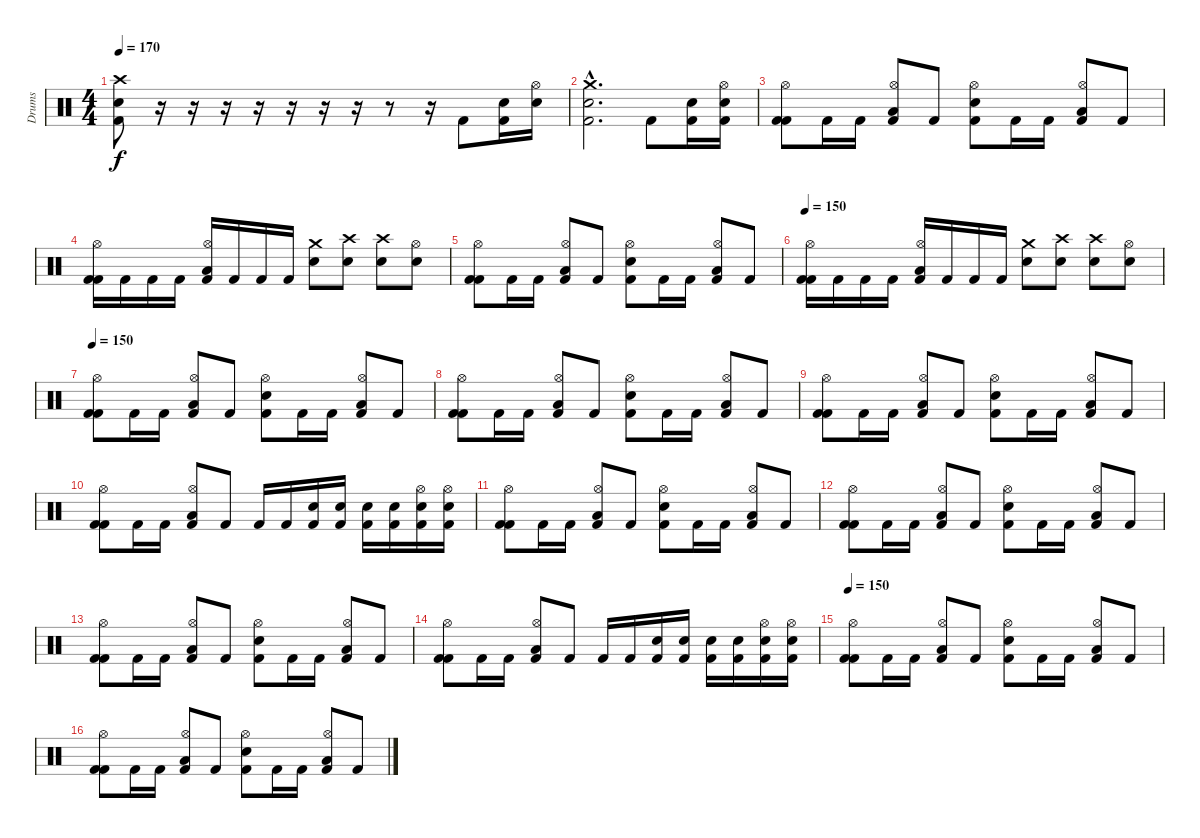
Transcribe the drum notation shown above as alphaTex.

\track ("Drums" "Drums") {instrument percussion}
\staff {score}
\articulation defaults
\ts (4 4)
\tempo 170
\clef neutral
\ks c
("Crash high (hit)" "Snare (hit) 2" "Kick (hit) 2").8{dy f} r.16 r.16 r.16 r.16 r.16 r.16 r.16 r.8 r.16 "Kick (hit) 2".8 ("Snare (hit) 2" "Kick (hit) 2").16 ("Hi-Hat (open)" "Snare (hit) 2").16 |
("Crash medium (hit)"{hac} "Snare (hit) 2"{hac} "Kick (hit) 2"{hac}).2{d} "Kick (hit) 2".8 ("Snare (hit) 2" "Kick (hit) 2").16 ("Hi-Hat (open)" "Snare (hit) 2" "Kick (hit) 2").16 |
("Hi-Hat (open)" "Kick (hit) 2" "Kick (hit) 2").8 "Kick (hit) 2".16 "Kick (hit) 2".16 ("Hi-Hat (open)" "Low Floor Tom (hit)" "Kick (hit) 2").8 "Kick (hit) 2".8 ("Hi-Hat (open)" "Snare (hit) 2" "Kick (hit) 2").8 "Kick (hit) 2".16 "Kick (hit) 2".16 ("Hi-Hat (open)" "Low Floor Tom (hit)" "Kick (hit) 2").8 "Kick (hit) 2".8 |
("Hi-Hat (open)" "Kick (hit) 2" "Kick (hit) 2").16 "Kick (hit) 2".16 "Kick (hit) 2".16 "Kick (hit) 2".16 ("Hi-Hat (open)" "Low Floor Tom (hit)" "Kick (hit) 2").16 "Kick (hit) 2".16 "Kick (hit) 2".16 "Kick (hit) 2".16 ("Crash medium (hit)" "Snare (hit) 2").8 ("Crash high (hit)" "Snare (hit) 2").8 ("Crash high (hit)" "Snare (hit) 2").8 ("Hi-Hat (open)" "Snare (hit) 2").8 |
("Hi-Hat (open)" "Kick (hit) 2" "Kick (hit) 2").8 "Kick (hit) 2".16 "Kick (hit) 2".16 ("Hi-Hat (open)" "Low Floor Tom (hit)" "Kick (hit) 2").8 "Kick (hit) 2".8 ("Hi-Hat (open)" "Snare (hit) 2" "Kick (hit) 2").8 "Kick (hit) 2".16 "Kick (hit) 2".16 ("Hi-Hat (open)" "Low Floor Tom (hit)" "Kick (hit) 2").8 "Kick (hit) 2".8 |
\tempo 150
("Hi-Hat (open)" "Kick (hit) 2" "Kick (hit) 2").16 "Kick (hit) 2".16 "Kick (hit) 2".16 "Kick (hit) 2".16 ("Hi-Hat (open)" "Low Floor Tom (hit)" "Kick (hit) 2").16 "Kick (hit) 2".16 "Kick (hit) 2".16 "Kick (hit) 2".16 ("Crash medium (hit)" "Snare (hit) 2").8 ("Crash high (hit)" "Snare (hit) 2").8 ("Crash high (hit)" "Snare (hit) 2").8 ("Hi-Hat (open)" "Snare (hit) 2").8 |
\tempo 150
("Hi-Hat (open)" "Kick (hit) 2" "Kick (hit) 2").8{volume 12} "Kick (hit) 2".16 "Kick (hit) 2".16 ("Hi-Hat (open)" "Low Floor Tom (hit)" "Kick (hit) 2").8 "Kick (hit) 2".8 ("Hi-Hat (open)" "Snare (hit) 2" "Kick (hit) 2").8 "Kick (hit) 2".16 "Kick (hit) 2".16 ("Hi-Hat (open)" "Low Floor Tom (hit)" "Kick (hit) 2").8 "Kick (hit) 2".8 |
("Hi-Hat (open)" "Kick (hit) 2" "Kick (hit) 2").8{volume 12} "Kick (hit) 2".16 "Kick (hit) 2".16 ("Hi-Hat (open)" "Low Floor Tom (hit)" "Kick (hit) 2").8 "Kick (hit) 2".8 ("Hi-Hat (open)" "Snare (hit) 2" "Kick (hit) 2").8 "Kick (hit) 2".16 "Kick (hit) 2".16 ("Hi-Hat (open)" "Low Floor Tom (hit)" "Kick (hit) 2").8 "Kick (hit) 2".8 |
("Hi-Hat (open)" "Kick (hit) 2" "Kick (hit) 2").8 "Kick (hit) 2".16 "Kick (hit) 2".16 ("Hi-Hat (open)" "Low Floor Tom (hit)" "Kick (hit) 2").8 "Kick (hit) 2".8 ("Hi-Hat (open)" "Snare (hit) 2" "Kick (hit) 2").8 "Kick (hit) 2".16 "Kick (hit) 2".16 ("Hi-Hat (open)" "Low Floor Tom (hit)" "Kick (hit) 2").8 "Kick (hit) 2".8 |
("Hi-Hat (open)" "Kick (hit) 2" "Kick (hit) 2").8{volume 12} "Kick (hit) 2".16 "Kick (hit) 2".16 ("Hi-Hat (open)" "Low Floor Tom (hit)" "Kick (hit) 2").8 "Kick (hit) 2".8 "Kick (hit) 2".16 "Kick (hit) 2".16 ("Snare (hit) 2" "Kick (hit) 2").16 ("Snare (hit) 2" "Kick (hit) 2").16 ("Snare (hit) 2" "Kick (hit) 2").16 ("Snare (hit) 2" "Kick (hit) 2").16 ("Hi-Hat (open)" "Snare (hit) 2" "Kick (hit) 2").16 ("Hi-Hat (open)" "Snare (hit) 2" "Kick (hit) 2").16 |
("Hi-Hat (open)" "Kick (hit) 2" "Kick (hit) 2").8{volume 12} "Kick (hit) 2".16 "Kick (hit) 2".16 ("Hi-Hat (open)" "Low Floor Tom (hit)" "Kick (hit) 2").8 "Kick (hit) 2".8 ("Hi-Hat (open)" "Snare (hit) 2" "Kick (hit) 2").8 "Kick (hit) 2".16 "Kick (hit) 2".16 ("Hi-Hat (open)" "Low Floor Tom (hit)" "Kick (hit) 2").8 "Kick (hit) 2".8 |
("Hi-Hat (open)" "Kick (hit) 2" "Kick (hit) 2").8{volume 12} "Kick (hit) 2".16 "Kick (hit) 2".16 ("Hi-Hat (open)" "Low Floor Tom (hit)" "Kick (hit) 2").8 "Kick (hit) 2".8 ("Hi-Hat (open)" "Snare (hit) 2" "Kick (hit) 2").8 "Kick (hit) 2".16 "Kick (hit) 2".16 ("Hi-Hat (open)" "Low Floor Tom (hit)" "Kick (hit) 2").8 "Kick (hit) 2".8 |
("Hi-Hat (open)" "Kick (hit) 2" "Kick (hit) 2").8 "Kick (hit) 2".16 "Kick (hit) 2".16 ("Hi-Hat (open)" "Low Floor Tom (hit)" "Kick (hit) 2").8 "Kick (hit) 2".8 ("Hi-Hat (open)" "Snare (hit) 2" "Kick (hit) 2").8 "Kick (hit) 2".16 "Kick (hit) 2".16 ("Hi-Hat (open)" "Low Floor Tom (hit)" "Kick (hit) 2").8 "Kick (hit) 2".8 |
("Hi-Hat (open)" "Kick (hit) 2" "Kick (hit) 2").8{volume 12} "Kick (hit) 2".16 "Kick (hit) 2".16 ("Hi-Hat (open)" "Low Floor Tom (hit)" "Kick (hit) 2").8 "Kick (hit) 2".8 "Kick (hit) 2".16 "Kick (hit) 2".16 ("Snare (hit) 2" "Kick (hit) 2").16 ("Snare (hit) 2" "Kick (hit) 2").16 ("Snare (hit) 2" "Kick (hit) 2").16 ("Snare (hit) 2" "Kick (hit) 2").16 ("Hi-Hat (open)" "Snare (hit) 2" "Kick (hit) 2").16 ("Hi-Hat (open)" "Snare (hit) 2" "Kick (hit) 2").16 |
\tempo 150
("Hi-Hat (open)" "Kick (hit) 2" "Kick (hit) 2").8{volume 12} "Kick (hit) 2".16 "Kick (hit) 2".16 ("Hi-Hat (open)" "Low Floor Tom (hit)" "Kick (hit) 2").8 "Kick (hit) 2".8 ("Hi-Hat (open)" "Snare (hit) 2" "Kick (hit) 2").8 "Kick (hit) 2".16 "Kick (hit) 2".16 ("Hi-Hat (open)" "Low Floor Tom (hit)" "Kick (hit) 2").8 "Kick (hit) 2".8 |
("Hi-Hat (open)" "Kick (hit) 2" "Kick (hit) 2").8{volume 12} "Kick (hit) 2".16 "Kick (hit) 2".16 ("Hi-Hat (open)" "Low Floor Tom (hit)" "Kick (hit) 2").8 "Kick (hit) 2".8 ("Hi-Hat (open)" "Snare (hit) 2" "Kick (hit) 2").8 "Kick (hit) 2".16 "Kick (hit) 2".16 ("Hi-Hat (open)" "Low Floor Tom (hit)" "Kick (hit) 2").8 "Kick (hit) 2".8
